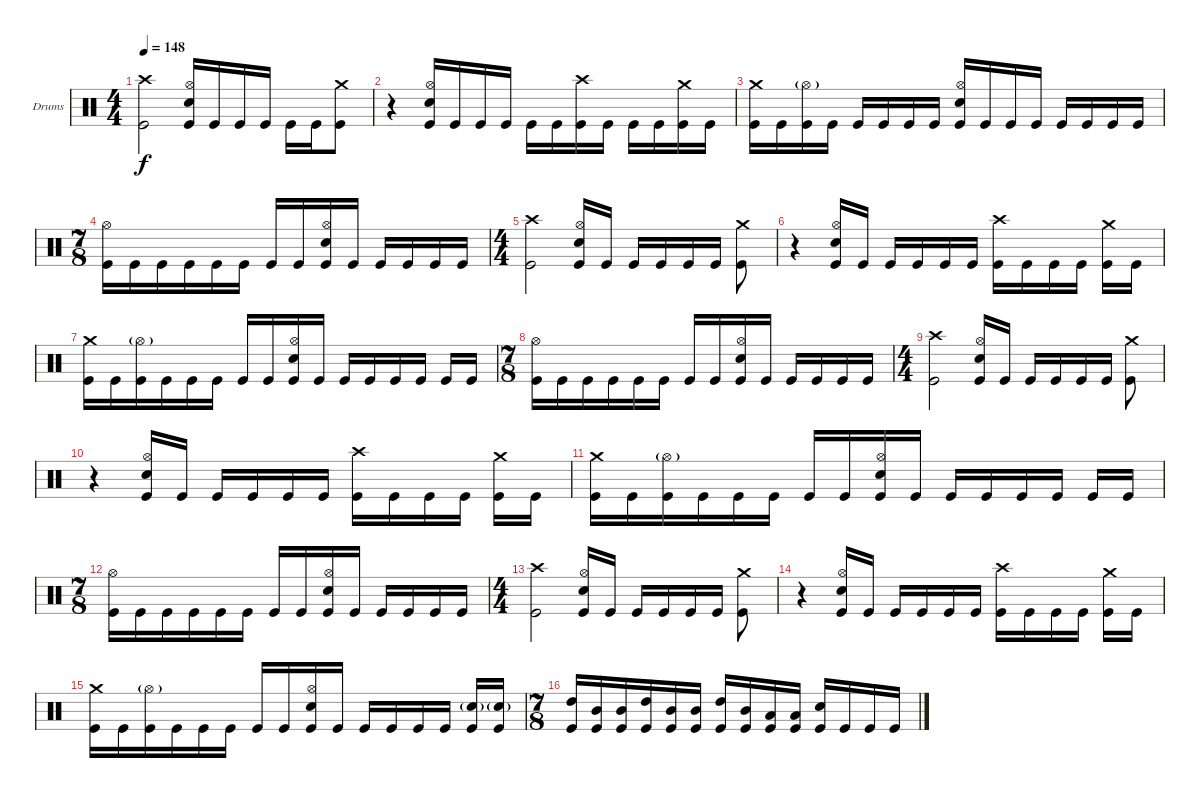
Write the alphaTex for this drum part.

\bracketExtendMode groupsimilarinstruments
\firstSystemTrackNameOrientation horizontal
\otherSystemsTrackNameOrientation horizontal
\track ("Drumkit" "Drums") {instrument percussion}
\staff {score}
\articulation defaults
\ts (4 4)
\tempo 148
\clef neutral
\ks c
("Crash high (hit)" "Kick (hit)").2{dy f} ("Hi-Hat (open)" "Snare (hit) 2" "Kick (hit)").16 "Kick (hit)".16 "Kick (hit)".16 "Kick (hit)".16 "Kick (hit)".16 "Kick (hit)".16 ("Crash medium (hit)" "Kick (hit)").8 |
r.4 ("Hi-Hat (open)" "Snare (hit) 2" "Kick (hit)").16 "Kick (hit)".16 "Kick (hit)".16 "Kick (hit)".16 "Kick (hit)".16 "Kick (hit)".16 ("Crash high (hit)" "Kick (hit)").16 "Kick (hit)".16 "Kick (hit)".16 "Kick (hit)".16 ("Crash medium (hit)" "Kick (hit)").16 "Kick (hit)".16 |
("Crash medium (hit)" "Kick (hit)").16 "Kick (hit)".16 ("Hi-Hat (open)"{g} "Kick (hit)").16 "Kick (hit)".16 "Kick (hit)".16 "Kick (hit)".16 "Kick (hit)".16 "Kick (hit)".16 ("Hi-Hat (open)" "Snare (hit) 2" "Kick (hit)").16 "Kick (hit)".16 "Kick (hit)".16 "Kick (hit)".16 "Kick (hit)".16 "Kick (hit)".16 "Kick (hit)".16 "Kick (hit)".16 |
\ts (7 8)
\beaming (8 3 2 2)
("Hi-Hat (open)" "Kick (hit)").16 "Kick (hit)".16 "Kick (hit)".16 "Kick (hit)".16 "Kick (hit)".16 "Kick (hit)".16 "Kick (hit)".16 "Kick (hit)".16 ("Hi-Hat (open)" "Snare (hit) 2" "Kick (hit)").16 "Kick (hit)".16 "Kick (hit)".16 "Kick (hit)".16 "Kick (hit)".16 "Kick (hit)".16 |
\ts (4 4)
\beaming (8 3 2 2 1)
("Crash high (hit)" "Kick (hit)").2 ("Hi-Hat (open)" "Snare (hit) 2" "Kick (hit)").16 "Kick (hit)".16 "Kick (hit)".16 "Kick (hit)".16 "Kick (hit)".16 "Kick (hit)".16 ("Crash medium (hit)" "Kick (hit)").8 |
r.4 ("Hi-Hat (open)" "Snare (hit) 2" "Kick (hit)").16 "Kick (hit)".16 "Kick (hit)".16 "Kick (hit)".16 "Kick (hit)".16 "Kick (hit)".16 ("Crash high (hit)" "Kick (hit)").16 "Kick (hit)".16 "Kick (hit)".16 "Kick (hit)".16 ("Crash medium (hit)" "Kick (hit)").16 "Kick (hit)".16 |
("Crash medium (hit)" "Kick (hit)").16 "Kick (hit)".16 ("Hi-Hat (open)"{g} "Kick (hit)").16 "Kick (hit)".16 "Kick (hit)".16 "Kick (hit)".16 "Kick (hit)".16 "Kick (hit)".16 ("Hi-Hat (open)" "Snare (hit) 2" "Kick (hit)").16 "Kick (hit)".16 "Kick (hit)".16 "Kick (hit)".16 "Kick (hit)".16 "Kick (hit)".16 "Kick (hit)".16 "Kick (hit)".16 |
\ts (7 8)
\beaming (8 3 2 2)
("Hi-Hat (open)" "Kick (hit)").16 "Kick (hit)".16 "Kick (hit)".16 "Kick (hit)".16 "Kick (hit)".16 "Kick (hit)".16 "Kick (hit)".16 "Kick (hit)".16 ("Hi-Hat (open)" "Snare (hit) 2" "Kick (hit)").16 "Kick (hit)".16 "Kick (hit)".16 "Kick (hit)".16 "Kick (hit)".16 "Kick (hit)".16 |
\ts (4 4)
\beaming (8 3 2 2 1)
("Crash high (hit)" "Kick (hit)").2 ("Hi-Hat (open)" "Snare (hit) 2" "Kick (hit)").16 "Kick (hit)".16 "Kick (hit)".16 "Kick (hit)".16 "Kick (hit)".16 "Kick (hit)".16 ("Crash medium (hit)" "Kick (hit)").8 |
r.4 ("Hi-Hat (open)" "Snare (hit) 2" "Kick (hit)").16 "Kick (hit)".16 "Kick (hit)".16 "Kick (hit)".16 "Kick (hit)".16 "Kick (hit)".16 ("Crash high (hit)" "Kick (hit)").16 "Kick (hit)".16 "Kick (hit)".16 "Kick (hit)".16 ("Crash medium (hit)" "Kick (hit)").16 "Kick (hit)".16 |
("Crash medium (hit)" "Kick (hit)").16 "Kick (hit)".16 ("Hi-Hat (open)"{g} "Kick (hit)").16 "Kick (hit)".16 "Kick (hit)".16 "Kick (hit)".16 "Kick (hit)".16 "Kick (hit)".16 ("Hi-Hat (open)" "Snare (hit) 2" "Kick (hit)").16 "Kick (hit)".16 "Kick (hit)".16 "Kick (hit)".16 "Kick (hit)".16 "Kick (hit)".16 "Kick (hit)".16 "Kick (hit)".16 |
\ts (7 8)
\beaming (8 3 2 2)
("Hi-Hat (open)" "Kick (hit)").16 "Kick (hit)".16 "Kick (hit)".16 "Kick (hit)".16 "Kick (hit)".16 "Kick (hit)".16 "Kick (hit)".16 "Kick (hit)".16 ("Hi-Hat (open)" "Snare (hit) 2" "Kick (hit)").16 "Kick (hit)".16 "Kick (hit)".16 "Kick (hit)".16 "Kick (hit)".16 "Kick (hit)".16 |
\ts (4 4)
\beaming (8 3 2 2 1)
("Crash high (hit)" "Kick (hit)").2 ("Hi-Hat (open)" "Snare (hit) 2" "Kick (hit)").16 "Kick (hit)".16 "Kick (hit)".16 "Kick (hit)".16 "Kick (hit)".16 "Kick (hit)".16 ("Crash medium (hit)" "Kick (hit)").8 |
r.4 ("Hi-Hat (open)" "Snare (hit) 2" "Kick (hit)").16 "Kick (hit)".16 "Kick (hit)".16 "Kick (hit)".16 "Kick (hit)".16 "Kick (hit)".16 ("Crash high (hit)" "Kick (hit)").16 "Kick (hit)".16 "Kick (hit)".16 "Kick (hit)".16 ("Crash medium (hit)" "Kick (hit)").16 "Kick (hit)".16 |
("Crash medium (hit)" "Kick (hit)").16 "Kick (hit)".16 ("Hi-Hat (open)"{g} "Kick (hit)").16 "Kick (hit)".16 "Kick (hit)".16 "Kick (hit)".16 "Kick (hit)".16 "Kick (hit)".16 ("Hi-Hat (open)" "Snare (hit) 2" "Kick (hit)").16 "Kick (hit)".16 "Kick (hit)".16 "Kick (hit)".16 "Kick (hit)".16 "Kick (hit)".16 ("Snare (hit) 2"{g} "Kick (hit)").16 ("Snare (hit) 2"{g} "Kick (hit)").16 |
\ts (7 8)
\beaming (8 3 2 2)
("High Tom (hit)" "Kick (hit)").16 ("Mid Tom (hit)" "Kick (hit)").16 ("Mid Tom (hit)" "Kick (hit)").16 ("High Tom (hit)" "Kick (hit)").16 ("Mid Tom (hit)" "Kick (hit)").16 ("Mid Tom (hit)" "Kick (hit)").16 ("High Tom (hit)" "Kick (hit)").16 ("Mid Tom (hit)" "Kick (hit)").16 ("Low Tom (hit)" "Kick (hit)").16 ("Low Tom (hit)" "Kick (hit)").16 ("Snare (hit) 2" "Kick (hit)").16 "Kick (hit)".16 "Kick (hit)".16 "Kick (hit)".16
